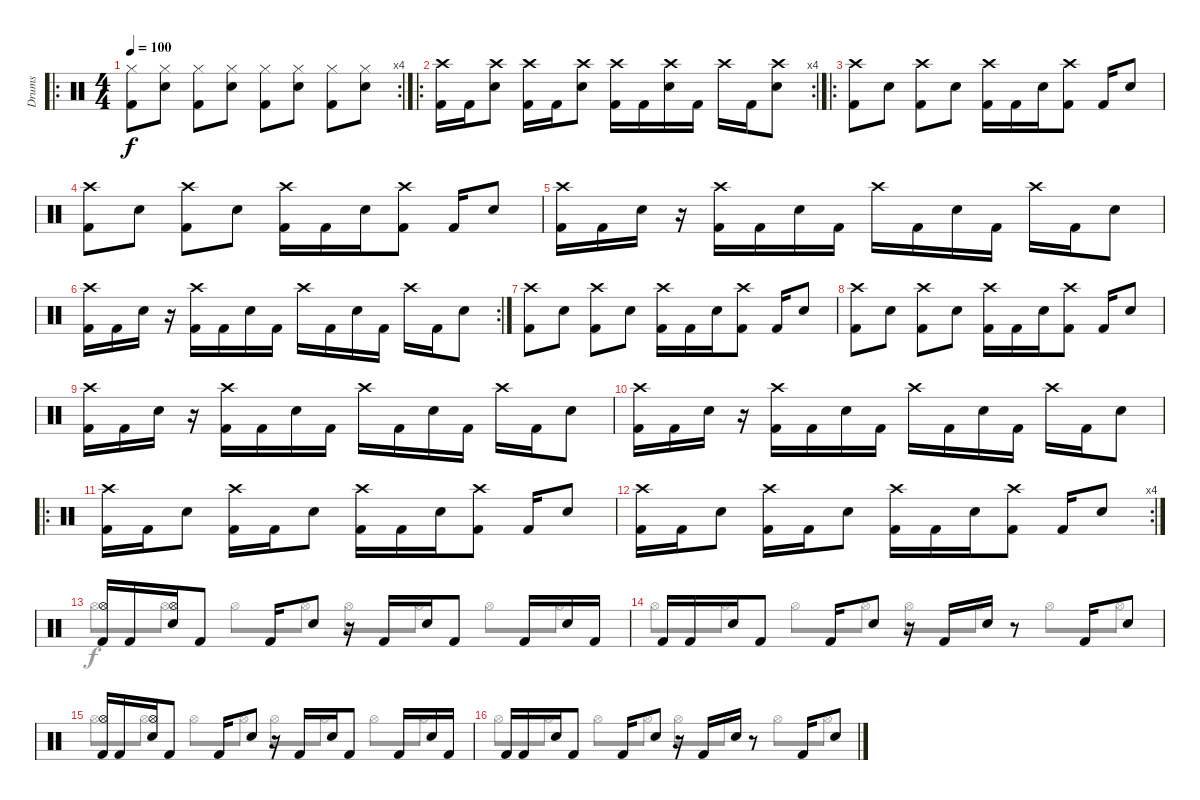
\track ("Drums" "Drums") {instrument percussion}
\staff {score}
\articulation defaults
\voice
\ro
\rc 4
\ts (4 4)
\tempo 100
\clef neutral
\ks c
("Hi-Hat (closed)" "Kick (hit) 2").8{dy f} ("Hi-Hat (closed)" "Snare (hit) 2").8 ("Hi-Hat (closed)" "Kick (hit) 2").8 ("Hi-Hat (closed)" "Snare (hit) 2").8 ("Hi-Hat (closed)" "Kick (hit) 2").8 ("Hi-Hat (closed)" "Snare (hit) 2").8 ("Hi-Hat (closed)" "Kick (hit) 2").8 ("Hi-Hat (closed)" "Snare (hit) 2").8 |
\ro
\rc 4
("Crash high (hit)" "Kick (hit) 2").16 "Kick (hit) 2".16 ("Crash high (hit)" "Snare (hit) 2").8 ("Crash high (hit)" "Kick (hit) 2").16 "Kick (hit) 2".16 ("Crash high (hit)" "Snare (hit) 2").8 ("Crash high (hit)" "Kick (hit) 2").16 "Kick (hit) 2".16 ("Crash high (hit)" "Snare (hit) 2").16 "Kick (hit) 2".16 "Crash high (hit)".16 "Kick (hit) 2".16 ("Crash high (hit)" "Snare (hit) 2").8 |
\ro
("Crash high (hit)" "Kick (hit) 2").8 "Snare (hit) 2".8 ("Crash high (hit)" "Kick (hit) 2").8 "Snare (hit) 2".8 ("Crash high (hit)" "Kick (hit) 2").16 "Kick (hit) 2".16 "Snare (hit) 2".16 ("Crash high (hit)" "Kick (hit) 2").8 "Kick (hit) 2".16 "Snare (hit) 2".8 |
("Crash high (hit)" "Kick (hit) 2").8 "Snare (hit) 2".8 ("Crash high (hit)" "Kick (hit) 2").8 "Snare (hit) 2".8 ("Crash high (hit)" "Kick (hit) 2").16 "Kick (hit) 2".16 "Snare (hit) 2".16 ("Crash high (hit)" "Kick (hit) 2").8 "Kick (hit) 2".16 "Snare (hit) 2".8 |
("Crash high (hit)" "Kick (hit) 2").16 "Kick (hit) 2".16 "Snare (hit) 2".16 r.16 ("Crash high (hit)" "Kick (hit) 2").16 "Kick (hit) 2".16 "Snare (hit) 2".16 "Kick (hit) 2".16 "Crash high (hit)".16 "Kick (hit) 2".16 "Snare (hit) 2".16 "Kick (hit) 2".16 "Crash high (hit)".16 "Kick (hit) 2".16 "Snare (hit) 2".8 |
\rc 2
("Crash high (hit)" "Kick (hit) 2").16 "Kick (hit) 2".16 "Snare (hit) 2".16 r.16 ("Crash high (hit)" "Kick (hit) 2").16 "Kick (hit) 2".16 "Snare (hit) 2".16 "Kick (hit) 2".16 "Crash high (hit)".16 "Kick (hit) 2".16 "Snare (hit) 2".16 "Kick (hit) 2".16 "Crash high (hit)".16 "Kick (hit) 2".16 "Snare (hit) 2".8 |
("Crash high (hit)" "Kick (hit) 2").8 "Snare (hit) 2".8 ("Crash high (hit)" "Kick (hit) 2").8 "Snare (hit) 2".8 ("Crash high (hit)" "Kick (hit) 2").16 "Kick (hit) 2".16 "Snare (hit) 2".16 ("Crash high (hit)" "Kick (hit) 2").8 "Kick (hit) 2".16 "Snare (hit) 2".8 |
("Crash high (hit)" "Kick (hit) 2").8 "Snare (hit) 2".8 ("Crash high (hit)" "Kick (hit) 2").8 "Snare (hit) 2".8 ("Crash high (hit)" "Kick (hit) 2").16 "Kick (hit) 2".16 "Snare (hit) 2".16 ("Crash high (hit)" "Kick (hit) 2").8 "Kick (hit) 2".16 "Snare (hit) 2".8 |
("Crash high (hit)" "Kick (hit) 2").16 "Kick (hit) 2".16 "Snare (hit) 2".16 r.16 ("Crash high (hit)" "Kick (hit) 2").16 "Kick (hit) 2".16 "Snare (hit) 2".16 "Kick (hit) 2".16 "Crash high (hit)".16 "Kick (hit) 2".16 "Snare (hit) 2".16 "Kick (hit) 2".16 "Crash high (hit)".16 "Kick (hit) 2".16 "Snare (hit) 2".8 |
("Crash high (hit)" "Kick (hit) 2").16 "Kick (hit) 2".16 "Snare (hit) 2".16 r.16 ("Crash high (hit)" "Kick (hit) 2").16 "Kick (hit) 2".16 "Snare (hit) 2".16 "Kick (hit) 2".16 "Crash high (hit)".16 "Kick (hit) 2".16 "Snare (hit) 2".16 "Kick (hit) 2".16 "Crash high (hit)".16 "Kick (hit) 2".16 "Snare (hit) 2".8 |
\ro
("Crash high (hit)" "Kick (hit) 2").16 "Kick (hit) 2".16 "Snare (hit) 2".8 ("Crash high (hit)" "Kick (hit) 2").16 "Kick (hit) 2".16 "Snare (hit) 2".8 ("Crash high (hit)" "Kick (hit) 2").16 "Kick (hit) 2".16 "Snare (hit) 2".16 ("Crash high (hit)" "Kick (hit) 2").8 "Kick (hit) 2".16 "Snare (hit) 2".8 |
\rc 4
("Crash high (hit)" "Kick (hit) 2").16 "Kick (hit) 2".16 "Snare (hit) 2".8 ("Crash high (hit)" "Kick (hit) 2").16 "Kick (hit) 2".16 "Snare (hit) 2".8 ("Crash high (hit)" "Kick (hit) 2").16 "Kick (hit) 2".16 "Snare (hit) 2".16 ("Crash high (hit)" "Kick (hit) 2").8 "Kick (hit) 2".16 "Snare (hit) 2".8 |
("Hi-Hat (open)" "Kick (hit) 2").16 "Kick (hit) 2".16 ("Hi-Hat (open)" "Snare (hit) 2").16 "Kick (hit) 2".8 "Kick (hit) 2".16 "Snare (hit) 2".8 r.16 "Kick (hit) 2".16 "Snare (hit) 2".16 "Kick (hit) 2".8 "Kick (hit) 2".16 "Snare (hit) 2".16 "Kick (hit) 2".16 |
"Kick (hit) 2".16 "Kick (hit) 2".16 "Snare (hit) 2".16 "Kick (hit) 2".8 "Kick (hit) 2".16 "Snare (hit) 2".8 r.16 "Kick (hit) 2".16 "Snare (hit) 2".16 r.8 "Kick (hit) 2".16 "Snare (hit) 2".8 |
("Hi-Hat (open)" "Kick (hit) 2").16 "Kick (hit) 2".16 ("Hi-Hat (open)" "Snare (hit) 2").16 "Kick (hit) 2".8 "Kick (hit) 2".16 "Snare (hit) 2".8 r.16 "Kick (hit) 2".16 "Snare (hit) 2".16 "Kick (hit) 2".8 "Kick (hit) 2".16 "Snare (hit) 2".16 "Kick (hit) 2".16 |
"Kick (hit) 2".16 "Kick (hit) 2".16 "Snare (hit) 2".16 "Kick (hit) 2".8 "Kick (hit) 2".16 "Snare (hit) 2".8 r.16 "Kick (hit) 2".16 "Snare (hit) 2".16 r.8 "Kick (hit) 2".16 "Snare (hit) 2".8
\voice
\clef neutral
\ottava regular
\simile none
\ks c
|
|
|
|
|
|
|
|
|
|
|
|
"Hi-Hat (open)".8 "Hi-Hat (open)".8 "Hi-Hat (open)".8 "Hi-Hat (open)".8 "Hi-Hat (open)".8 "Hi-Hat (open)".8 "Hi-Hat (open)".8 "Hi-Hat (open)".8 |
"Hi-Hat (open)".8 "Hi-Hat (open)".8 "Hi-Hat (open)".8 "Hi-Hat (open)".8 "Hi-Hat (open)".8 "Hi-Hat (open)".8 "Hi-Hat (open)".8 "Hi-Hat (open)".8 |
"Hi-Hat (open)".8 "Hi-Hat (open)".8 "Hi-Hat (open)".8 "Hi-Hat (open)".8 "Hi-Hat (open)".8 "Hi-Hat (open)".8 "Hi-Hat (open)".8 "Hi-Hat (open)".8 |
"Hi-Hat (open)".8 "Hi-Hat (open)".8 "Hi-Hat (open)".8 "Hi-Hat (open)".8 "Hi-Hat (open)".8 "Hi-Hat (open)".8 "Hi-Hat (open)".8 "Hi-Hat (open)".8
